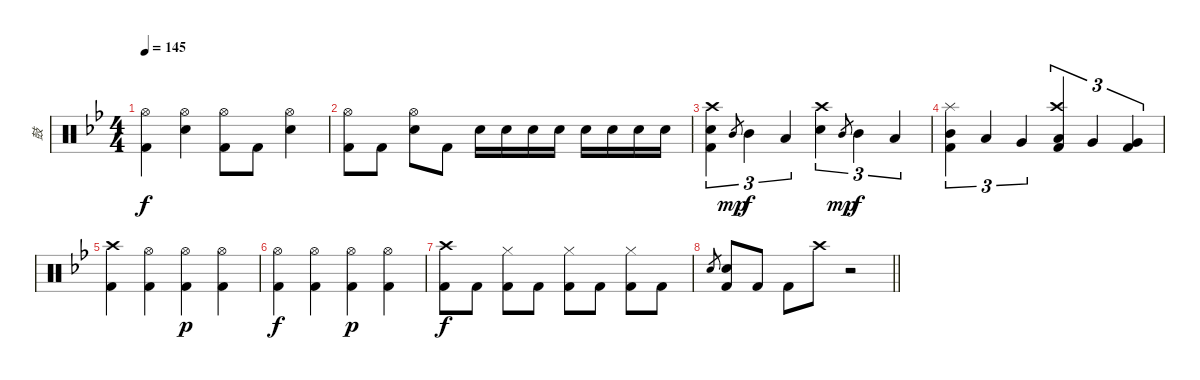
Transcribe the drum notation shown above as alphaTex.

\track ("鼓" "鼓") {instrument percussion}
\staff {score}
\articulation defaults
\ts (4 4)
\tempo 145
\clef neutral
\ks bb
("Hi-Hat (open)" "Kick (hit) 2").4{dy f} ("Hi-Hat (open)" "Snare (hit) 2").4 ("Hi-Hat (open)" "Kick (hit) 2").8 "Kick (hit) 2".8 ("Hi-Hat (open)" "Snare (hit) 2").4 |
("Hi-Hat (open)" "Kick (hit) 2").8 "Kick (hit) 2".8 ("Hi-Hat (open)" "Snare (hit) 2").8 "Kick (hit) 2".8 "Snare (hit) 2".16 "Snare (hit) 2".16 "Snare (hit) 2".16 "Snare (hit) 2".16 "Snare (hit) 2".16 "Snare (hit) 2".16 "Snare (hit) 2".16 "Snare (hit) 2".16 |
("Crash high (hit)" "Snare (hit) 2" "Kick (hit) 2").4{tu (3 2)} "Mid Tom (hit)".8{gr dy mp} "Mid Tom (hit)".4{tu (3 2) dy f} "Low Tom (hit)".4{tu (3 2)} ("Crash high (hit)" "Snare (hit) 2").4{tu (3 2)} "Mid Tom (hit)".8{gr dy mp} "Mid Tom (hit)".4{tu (3 2) dy f} "Low Tom (hit)".4{tu (3 2)} |
("Splash (hit)" "Mid Tom (hit)" "Kick (hit) 2").4{tu (3 2)} "Low Tom (hit)".4{tu (3 2)} "Very Low Tom (hit)".4{tu (3 2)} ("Crash high (hit)" "Low Tom (hit)" "Kick (hit) 2").4{tu (3 2)} "Very Low Tom (hit)".4{tu (3 2)} ("Very Low Tom (hit)" "Kick (hit) 2").4{tu (3 2)} |
("Crash high (hit)" "Kick (hit) 2").4 ("Hi-Hat (open)" "Kick (hit) 2").4 ("Hi-Hat (open)" "Kick (hit) 2").4{dy p} ("Hi-Hat (open)" "Kick (hit) 2").4 |
("Hi-Hat (open)" "Kick (hit) 2").4{dy f} ("Hi-Hat (open)" "Kick (hit) 2").4 ("Hi-Hat (open)" "Kick (hit) 2").4{dy p} ("Hi-Hat (open)" "Kick (hit) 2").4 |
("Crash high (hit)" "Kick (hit) 2").8{dy f} "Kick (hit) 2".8 ("Hi-Hat (closed)" "Kick (hit) 2").8 "Kick (hit) 2".8 ("Hi-Hat (closed)" "Kick (hit) 2").8 "Kick (hit) 2".8 ("Hi-Hat (closed)" "Kick (hit) 2").8 "Kick (hit) 2".8 |
\barLineRight lightlight "Snare (hit) 2".8{gr}
("Snare (hit) 2" "Kick (hit) 2").8 "Kick (hit) 2".8 "Kick (hit) 2".8 "Crash high (hit)".8 r.2
